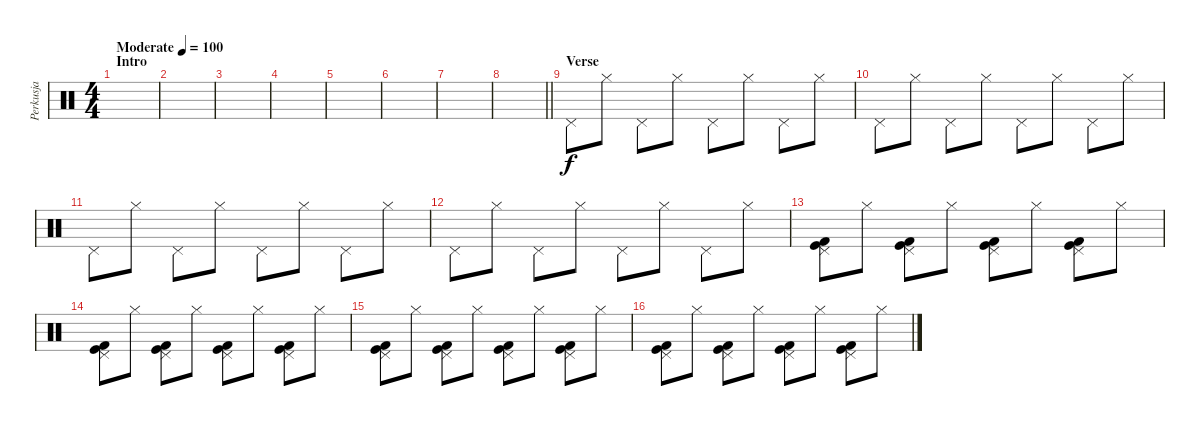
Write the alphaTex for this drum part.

\track ("Perkusja" "Perkusja") {instrument percussion}
\staff {score}
\articulation defaults
\ts (4 4)
\section ("" "Intro")
\tempo (100 "Moderate")
\clef neutral
\ks c
|
|
|
|
|
|
|
\barLineRight lightlight
|
\section ("" "Verse")
"Pedal Hi-Hat (hit)".8 "Hi-Hat (closed)".8 "Pedal Hi-Hat (hit)".8 "Hi-Hat (closed)".8 "Pedal Hi-Hat (hit)".8 "Hi-Hat (closed)".8 "Pedal Hi-Hat (hit)".8 "Hi-Hat (closed)".8 |
"Pedal Hi-Hat (hit)".8 "Hi-Hat (closed)".8 "Pedal Hi-Hat (hit)".8 "Hi-Hat (closed)".8 "Pedal Hi-Hat (hit)".8 "Hi-Hat (closed)".8 "Pedal Hi-Hat (hit)".8 "Hi-Hat (closed)".8 |
"Pedal Hi-Hat (hit)".8 "Hi-Hat (closed)".8 "Pedal Hi-Hat (hit)".8 "Hi-Hat (closed)".8 "Pedal Hi-Hat (hit)".8 "Hi-Hat (closed)".8 "Pedal Hi-Hat (hit)".8 "Hi-Hat (closed)".8 |
"Pedal Hi-Hat (hit)".8 "Hi-Hat (closed)".8 "Pedal Hi-Hat (hit)".8 "Hi-Hat (closed)".8 "Pedal Hi-Hat (hit)".8 "Hi-Hat (closed)".8 "Pedal Hi-Hat (hit)".8 "Hi-Hat (closed)".8 |
("Pedal Hi-Hat (hit)" "Kick (hit) 2" "Kick (hit)").8 "Hi-Hat (closed)".8 ("Pedal Hi-Hat (hit)" "Kick (hit) 2" "Kick (hit)").8 "Hi-Hat (closed)".8 ("Pedal Hi-Hat (hit)" "Kick (hit) 2" "Kick (hit)").8 "Hi-Hat (closed)".8 ("Pedal Hi-Hat (hit)" "Kick (hit) 2" "Kick (hit)").8 "Hi-Hat (closed)".8 |
("Pedal Hi-Hat (hit)" "Kick (hit) 2" "Kick (hit)").8 "Hi-Hat (closed)".8 ("Pedal Hi-Hat (hit)" "Kick (hit) 2" "Kick (hit)").8 "Hi-Hat (closed)".8 ("Pedal Hi-Hat (hit)" "Kick (hit) 2" "Kick (hit)").8 "Hi-Hat (closed)".8 ("Pedal Hi-Hat (hit)" "Kick (hit) 2" "Kick (hit)").8 "Hi-Hat (closed)".8 |
("Pedal Hi-Hat (hit)" "Kick (hit) 2" "Kick (hit)").8 "Hi-Hat (closed)".8 ("Pedal Hi-Hat (hit)" "Kick (hit) 2" "Kick (hit)").8 "Hi-Hat (closed)".8 ("Pedal Hi-Hat (hit)" "Kick (hit) 2" "Kick (hit)").8 "Hi-Hat (closed)".8 ("Pedal Hi-Hat (hit)" "Kick (hit) 2" "Kick (hit)").8 "Hi-Hat (closed)".8 |
("Pedal Hi-Hat (hit)" "Kick (hit) 2" "Kick (hit)").8 "Hi-Hat (closed)".8 ("Pedal Hi-Hat (hit)" "Kick (hit) 2" "Kick (hit)").8 "Hi-Hat (closed)".8 ("Pedal Hi-Hat (hit)" "Kick (hit) 2" "Kick (hit)").8 "Hi-Hat (closed)".8 ("Pedal Hi-Hat (hit)" "Kick (hit) 2" "Kick (hit)").8 "Hi-Hat (closed)".8
